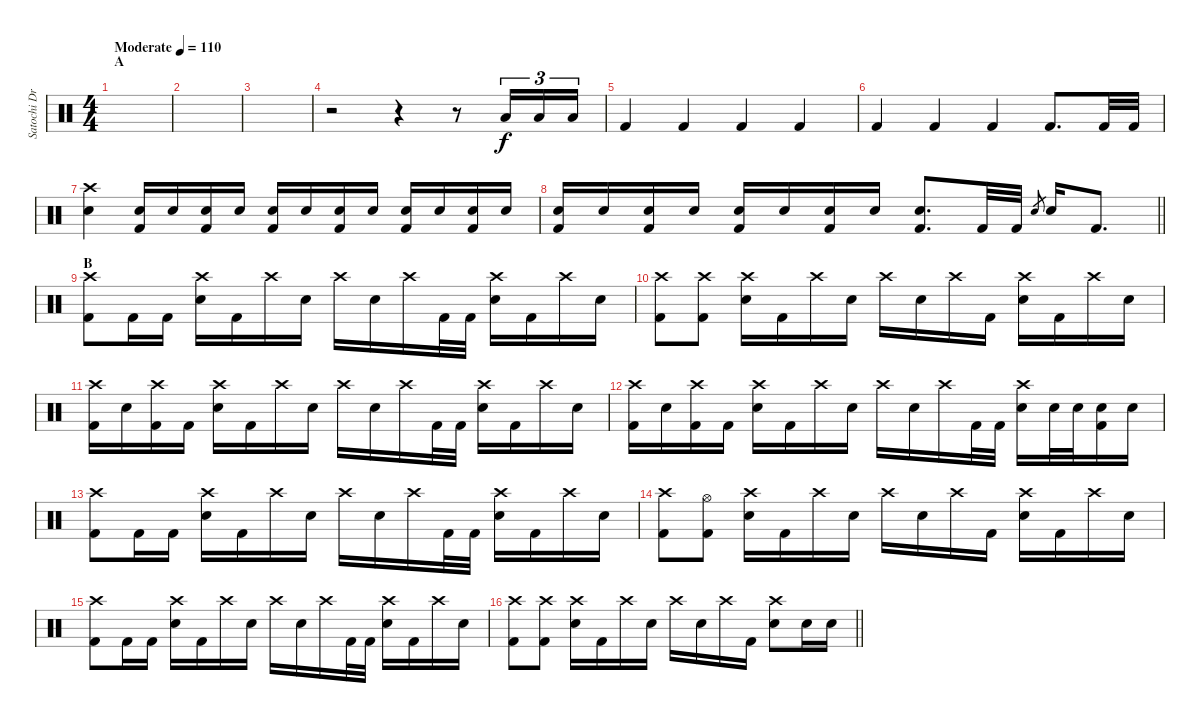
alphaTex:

\track ("Satochi Drums" "Satochi Dr") {instrument percussion}
\staff {score}
\articulation defaults
\ts (4 4)
\section ("" "A")
\tempo (110 "Moderate")
\clef neutral
\ks c
|
|
|
r.2 r.4 r.8 "Low Floor Tom (hit)".16{tu (3 2)} "Low Tom (hit)".16{tu (3 2)} "Low Floor Tom (hit)".16{tu (3 2)} |
"Kick (hit) 2".4 "Kick (hit) 2".4 "Kick (hit) 2".4 "Kick (hit) 2".4 |
"Kick (hit) 2".4 "Kick (hit) 2".4 "Kick (hit) 2".4 "Kick (hit) 2".8{d} "Kick (hit) 2".32 "Kick (hit) 2".32 |
("Crash high (hit)" "Snare (hit) 2").4 ("Snare (hit) 2" "Kick (hit) 2").16 "Snare (hit) 2".16 ("Snare (hit) 2" "Kick (hit) 2").16 "Snare (hit) 2".16 ("Snare (hit) 2" "Kick (hit) 2").16 "Snare (hit) 2".16 ("Snare (hit) 2" "Kick (hit) 2").16 "Snare (hit) 2".16 ("Snare (hit) 2" "Kick (hit) 2").16 "Snare (hit) 2".16 ("Snare (hit) 2" "Kick (hit) 2").16 "Snare (hit) 2".16 |
\barLineRight lightlight
("Snare (hit) 2" "Kick (hit) 2").16 "Snare (hit) 2".16 ("Snare (hit) 2" "Kick (hit) 2").16 "Snare (hit) 2".16 ("Snare (hit) 2" "Kick (hit) 2").16 "Snare (hit) 2".16 ("Snare (hit) 2" "Kick (hit) 2").16 "Snare (hit) 2".16 ("Snare (hit) 2" "Kick (hit) 2").8{d} "Kick (hit) 2".32 "Kick (hit) 2".32 "Snare (hit) 2".8{gr} "Snare (hit) 2".16 "Kick (hit) 2".8{d} |
\section ("" "B")
("Crash high (hit)" "Kick (hit) 2").8 "Kick (hit) 2".16 "Kick (hit) 2".16 ("Crash high (hit)" "Snare (hit) 2").16 "Kick (hit) 2".16 "Crash high (hit)".16 "Snare (hit) 2".16 "Crash high (hit)".16 "Snare (hit) 2".16 "Crash high (hit)".16 "Kick (hit) 2".32 "Kick (hit) 2".32 ("Crash high (hit)" "Snare (hit) 2").16 "Kick (hit) 2".16 "Crash high (hit)".16 "Snare (hit) 2".16 |
("Crash high (hit)" "Kick (hit) 2").8 ("Crash high (hit)" "Kick (hit) 2").8 ("Crash high (hit)" "Snare (hit) 2").16 "Kick (hit) 2".16 "Crash high (hit)".16 "Snare (hit) 2".16 "Crash high (hit)".16 "Snare (hit) 2".16 "Crash high (hit)".16 "Kick (hit) 2".16 ("Crash high (hit)" "Snare (hit) 2").16 "Kick (hit) 2".16 "Crash high (hit)".16 "Snare (hit) 2".16 |
("Crash high (hit)" "Kick (hit) 2").16 "Snare (hit) 2".16 ("Crash high (hit)" "Kick (hit) 2").16 "Kick (hit) 2".16 ("Crash high (hit)" "Snare (hit) 2").16 "Kick (hit) 2".16 "Crash high (hit)".16 "Snare (hit) 2".16 "Crash high (hit)".16 "Snare (hit) 2".16 "Crash high (hit)".16 "Kick (hit) 2".32 "Kick (hit) 2".32 ("Crash high (hit)" "Snare (hit) 2").16 "Kick (hit) 2".16 "Crash high (hit)".16 "Snare (hit) 2".16 |
("Crash high (hit)" "Kick (hit) 2").16 "Snare (hit) 2".16 ("Crash high (hit)" "Kick (hit) 2").16 "Kick (hit) 2".16 ("Crash high (hit)" "Snare (hit) 2").16 "Kick (hit) 2".16 "Crash high (hit)".16 "Snare (hit) 2".16 "Crash high (hit)".16 "Snare (hit) 2".16 "Crash high (hit)".16 "Kick (hit) 2".32 "Kick (hit) 2".32 ("Crash high (hit)" "Snare (hit) 2").16 "Snare (hit) 2".32 "Snare (hit) 2".32 ("Snare (hit) 2" "Kick (hit) 2").16 "Snare (hit) 2".16 |
("Crash high (hit)" "Kick (hit) 2").8 "Kick (hit) 2".16 "Kick (hit) 2".16 ("Crash high (hit)" "Snare (hit) 2").16 "Kick (hit) 2".16 "Crash high (hit)".16 "Snare (hit) 2".16 "Crash high (hit)".16 "Snare (hit) 2".16 "Crash high (hit)".16 "Kick (hit) 2".32 "Kick (hit) 2".32 ("Crash high (hit)" "Snare (hit) 2").16 "Kick (hit) 2".16 "Crash high (hit)".16 "Snare (hit) 2".16 |
("Crash high (hit)" "Kick (hit) 2").8 ("Hi-Hat (open)" "Kick (hit) 2").8 ("Crash high (hit)" "Snare (hit) 2").16 "Kick (hit) 2".16 "Crash high (hit)".16 "Snare (hit) 2".16 "Crash high (hit)".16 "Snare (hit) 2".16 "Crash high (hit)".16 "Kick (hit) 2".16 ("Crash high (hit)" "Snare (hit) 2").16 "Kick (hit) 2".16 "Crash high (hit)".16 "Snare (hit) 2".16 |
("Crash high (hit)" "Kick (hit) 2").8 "Kick (hit) 2".16 "Kick (hit) 2".16 ("Crash high (hit)" "Snare (hit) 2").16 "Kick (hit) 2".16 "Crash high (hit)".16 "Snare (hit) 2".16 "Crash high (hit)".16 "Snare (hit) 2".16 "Crash high (hit)".16 "Kick (hit) 2".32 "Kick (hit) 2".32 ("Crash high (hit)" "Snare (hit) 2").16 "Kick (hit) 2".16 "Crash high (hit)".16 "Snare (hit) 2".16 |
\barLineRight lightlight
("Crash high (hit)" "Kick (hit) 2").8 ("Crash high (hit)" "Kick (hit) 2").8 ("Crash high (hit)" "Snare (hit) 2").16 "Kick (hit) 2".16 "Crash high (hit)".16 "Snare (hit) 2".16 "Crash high (hit)".16 "Snare (hit) 2".16 "Crash high (hit)".16 "Kick (hit) 2".16 ("Crash high (hit)" "Snare (hit) 2").8 "Snare (hit) 2".16 "Snare (hit) 2".16
